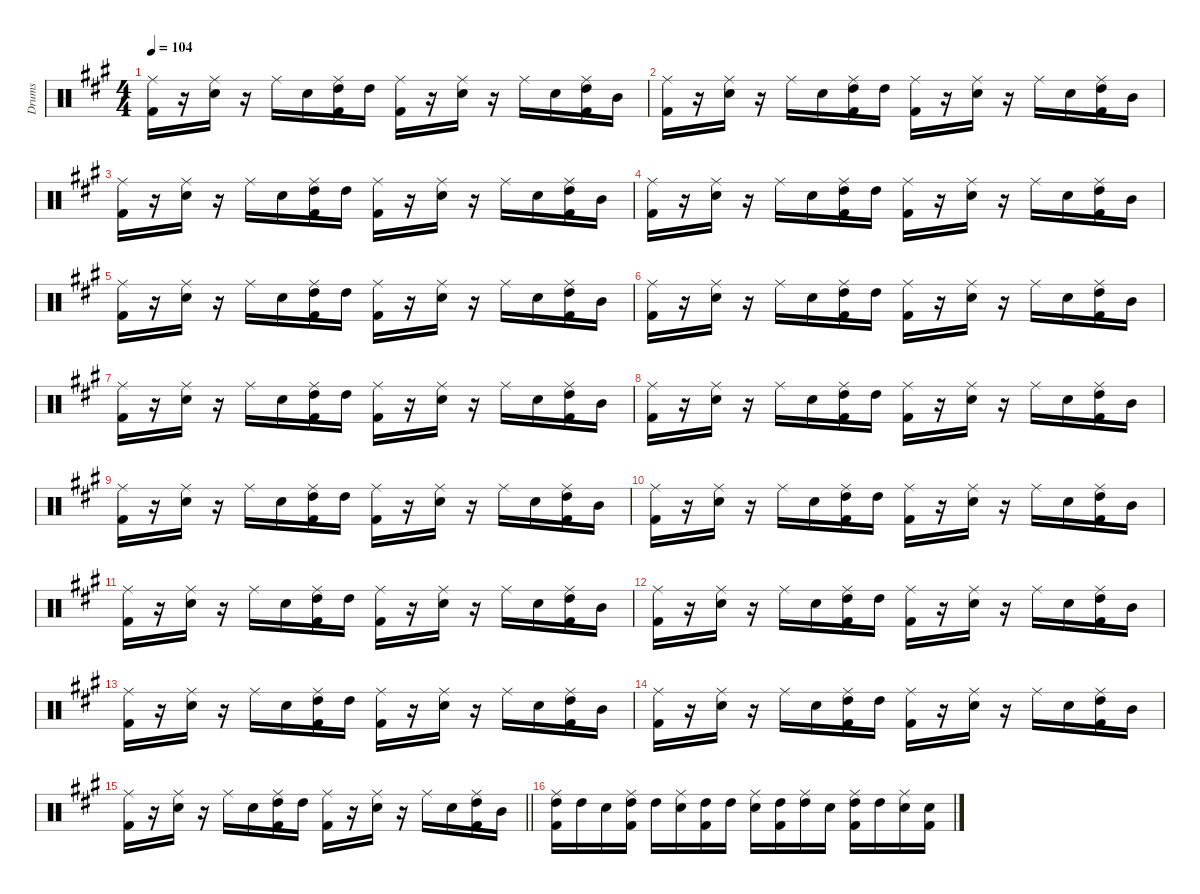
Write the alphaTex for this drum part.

\hideDynamics
\bracketExtendMode nobrackets
\otherSystemsTrackNameOrientation horizontal
\track ("Drumkit" "Drums") {instrument percussion}
\staff {score}
\articulation defaults
\ts (4 4)
\tempo 104
\clef neutral
\ks a
("Ride (middle)"{acc forcenatural} "Kick (hit) 2"{acc forcenatural}).16{dy f beam Down} r.16{beam Down} ("Ride (middle)"{acc forcenatural} "Snare (hit) 2"{acc forcenatural}).16{beam Down} r.16{beam Down} "Ride (middle)"{acc forcenatural}.16{beam Down} "Snare (hit) 2"{acc forcenatural}.16{beam Down} ("Ride (middle)"{acc forcenatural} "High Tom (hit)"{acc forcenatural} "Kick (hit) 2"{acc forcenatural}).16{beam Down} "High Tom (hit)"{acc forcenatural}.16{beam Down} ("Ride (middle)"{acc forcenatural} "Kick (hit) 2"{acc forcenatural}).16{beam Down} r.16{beam Down} ("Ride (middle)"{acc forcenatural} "Snare (hit) 2"{acc forcenatural}).16{beam Down} r.16{beam Down} "Ride (middle)"{acc forcenatural}.16{beam Down} "Snare (hit) 2"{acc forcenatural}.16{beam Down} ("Ride (middle)"{acc forcenatural} "High Tom (hit)"{acc forcenatural} "Kick (hit) 2"{acc forcenatural}).16{beam Down} "Mid Tom (hit)"{acc forcenatural}.16{beam Down} |
("Ride (middle)"{acc forcenatural} "Kick (hit) 2"{acc forcenatural}).16{beam Down} r.16{beam Down} ("Ride (middle)"{acc forcenatural} "Snare (hit) 2"{acc forcenatural}).16{beam Down} r.16{beam Down} "Ride (middle)"{acc forcenatural}.16{beam Down} "Snare (hit) 2"{acc forcenatural}.16{beam Down} ("Ride (middle)"{acc forcenatural} "High Tom (hit)"{acc forcenatural} "Kick (hit) 2"{acc forcenatural}).16{beam Down} "High Tom (hit)"{acc forcenatural}.16{beam Down} ("Ride (middle)"{acc forcenatural} "Kick (hit) 2"{acc forcenatural}).16{beam Down} r.16{beam Down} ("Ride (middle)"{acc forcenatural} "Snare (hit) 2"{acc forcenatural}).16{beam Down} r.16{beam Down} "Ride (middle)"{acc forcenatural}.16{beam Down} "Snare (hit) 2"{acc forcenatural}.16{beam Down} ("Ride (middle)"{acc forcenatural} "High Tom (hit)"{acc forcenatural} "Kick (hit) 2"{acc forcenatural}).16{beam Down} "Mid Tom (hit)"{acc forcenatural}.16{beam Down} |
("Ride (middle)"{acc forcenatural} "Kick (hit) 2"{acc forcenatural}).16{beam Down} r.16{beam Down} ("Ride (middle)"{acc forcenatural} "Snare (hit) 2"{acc forcenatural}).16{beam Down} r.16{beam Down} "Ride (middle)"{acc forcenatural}.16{beam Down} "Snare (hit) 2"{acc forcenatural}.16{beam Down} ("Ride (middle)"{acc forcenatural} "High Tom (hit)"{acc forcenatural} "Kick (hit) 2"{acc forcenatural}).16{beam Down} "High Tom (hit)"{acc forcenatural}.16{beam Down} ("Ride (middle)"{acc forcenatural} "Kick (hit) 2"{acc forcenatural}).16{beam Down} r.16{beam Down} ("Ride (middle)"{acc forcenatural} "Snare (hit) 2"{acc forcenatural}).16{beam Down} r.16{beam Down} "Ride (middle)"{acc forcenatural}.16{beam Down} "Snare (hit) 2"{acc forcenatural}.16{beam Down} ("Ride (middle)"{acc forcenatural} "High Tom (hit)"{acc forcenatural} "Kick (hit) 2"{acc forcenatural}).16{beam Down} "Mid Tom (hit)"{acc forcenatural}.16{beam Down} |
("Ride (middle)"{acc forcenatural} "Kick (hit) 2"{acc forcenatural}).16{beam Down} r.16{beam Down} ("Ride (middle)"{acc forcenatural} "Snare (hit) 2"{acc forcenatural}).16{beam Down} r.16{beam Down} "Ride (middle)"{acc forcenatural}.16{beam Down} "Snare (hit) 2"{acc forcenatural}.16{beam Down} ("Ride (middle)"{acc forcenatural} "High Tom (hit)"{acc forcenatural} "Kick (hit) 2"{acc forcenatural}).16{beam Down} "High Tom (hit)"{acc forcenatural}.16{beam Down} ("Ride (middle)"{acc forcenatural} "Kick (hit) 2"{acc forcenatural}).16{beam Down} r.16{beam Down} ("Ride (middle)"{acc forcenatural} "Snare (hit) 2"{acc forcenatural}).16{beam Down} r.16{beam Down} "Ride (middle)"{acc forcenatural}.16{beam Down} "Snare (hit) 2"{acc forcenatural}.16{beam Down} ("Ride (middle)"{acc forcenatural} "High Tom (hit)"{acc forcenatural} "Kick (hit) 2"{acc forcenatural}).16{beam Down} "Mid Tom (hit)"{acc forcenatural}.16{beam Down} |
("Ride (middle)"{acc forcenatural} "Kick (hit) 2"{acc forcenatural}).16{beam Down} r.16{beam Down} ("Ride (middle)"{acc forcenatural} "Snare (hit) 2"{acc forcenatural}).16{beam Down} r.16{beam Down} "Ride (middle)"{acc forcenatural}.16{beam Down} "Snare (hit) 2"{acc forcenatural}.16{beam Down} ("Ride (middle)"{acc forcenatural} "High Tom (hit)"{acc forcenatural} "Kick (hit) 2"{acc forcenatural}).16{beam Down} "High Tom (hit)"{acc forcenatural}.16{beam Down} ("Ride (middle)"{acc forcenatural} "Kick (hit) 2"{acc forcenatural}).16{beam Down} r.16{beam Down} ("Ride (middle)"{acc forcenatural} "Snare (hit) 2"{acc forcenatural}).16{beam Down} r.16{beam Down} "Ride (middle)"{acc forcenatural}.16{beam Down} "Snare (hit) 2"{acc forcenatural}.16{beam Down} ("Ride (middle)"{acc forcenatural} "High Tom (hit)"{acc forcenatural} "Kick (hit) 2"{acc forcenatural}).16{beam Down} "Mid Tom (hit)"{acc forcenatural}.16{beam Down} |
("Ride (middle)"{acc forcenatural} "Kick (hit) 2"{acc forcenatural}).16{beam Down} r.16{beam Down} ("Ride (middle)"{acc forcenatural} "Snare (hit) 2"{acc forcenatural}).16{beam Down} r.16{beam Down} "Ride (middle)"{acc forcenatural}.16{beam Down} "Snare (hit) 2"{acc forcenatural}.16{beam Down} ("Ride (middle)"{acc forcenatural} "High Tom (hit)"{acc forcenatural} "Kick (hit) 2"{acc forcenatural}).16{beam Down} "High Tom (hit)"{acc forcenatural}.16{beam Down} ("Ride (middle)"{acc forcenatural} "Kick (hit) 2"{acc forcenatural}).16{beam Down} r.16{beam Down} ("Ride (middle)"{acc forcenatural} "Snare (hit) 2"{acc forcenatural}).16{beam Down} r.16{beam Down} "Ride (middle)"{acc forcenatural}.16{beam Down} "Snare (hit) 2"{acc forcenatural}.16{beam Down} ("Ride (middle)"{acc forcenatural} "High Tom (hit)"{acc forcenatural} "Kick (hit) 2"{acc forcenatural}).16{beam Down} "Mid Tom (hit)"{acc forcenatural}.16{beam Down} |
("Ride (middle)"{acc forcenatural} "Kick (hit) 2"{acc forcenatural}).16{beam Down} r.16{beam Down} ("Ride (middle)"{acc forcenatural} "Snare (hit) 2"{acc forcenatural}).16{beam Down} r.16{beam Down} "Ride (middle)"{acc forcenatural}.16{beam Down} "Snare (hit) 2"{acc forcenatural}.16{beam Down} ("Ride (middle)"{acc forcenatural} "High Tom (hit)"{acc forcenatural} "Kick (hit) 2"{acc forcenatural}).16{beam Down} "High Tom (hit)"{acc forcenatural}.16{beam Down} ("Ride (middle)"{acc forcenatural} "Kick (hit) 2"{acc forcenatural}).16{beam Down} r.16{beam Down} ("Ride (middle)"{acc forcenatural} "Snare (hit) 2"{acc forcenatural}).16{beam Down} r.16{beam Down} "Ride (middle)"{acc forcenatural}.16{beam Down} "Snare (hit) 2"{acc forcenatural}.16{beam Down} ("Ride (middle)"{acc forcenatural} "High Tom (hit)"{acc forcenatural} "Kick (hit) 2"{acc forcenatural}).16{beam Down} "Mid Tom (hit)"{acc forcenatural}.16{beam Down} |
("Ride (middle)"{acc forcenatural} "Kick (hit) 2"{acc forcenatural}).16{beam Down} r.16{beam Down} ("Ride (middle)"{acc forcenatural} "Snare (hit) 2"{acc forcenatural}).16{beam Down} r.16{beam Down} "Ride (middle)"{acc forcenatural}.16{beam Down} "Snare (hit) 2"{acc forcenatural}.16{beam Down} ("Ride (middle)"{acc forcenatural} "High Tom (hit)"{acc forcenatural} "Kick (hit) 2"{acc forcenatural}).16{beam Down} "High Tom (hit)"{acc forcenatural}.16{beam Down} ("Ride (middle)"{acc forcenatural} "Kick (hit) 2"{acc forcenatural}).16{beam Down} r.16{beam Down} ("Ride (middle)"{acc forcenatural} "Snare (hit) 2"{acc forcenatural}).16{beam Down} r.16{beam Down} "Ride (middle)"{acc forcenatural}.16{beam Down} "Snare (hit) 2"{acc forcenatural}.16{beam Down} ("Ride (middle)"{acc forcenatural} "High Tom (hit)"{acc forcenatural} "Kick (hit) 2"{acc forcenatural}).16{beam Down} "Mid Tom (hit)"{acc forcenatural}.16{beam Down} |
("Ride (middle)"{acc forcenatural} "Kick (hit) 2"{acc forcenatural}).16{beam Down} r.16{beam Down} ("Ride (middle)"{acc forcenatural} "Snare (hit) 2"{acc forcenatural}).16{beam Down} r.16{beam Down} "Ride (middle)"{acc forcenatural}.16{beam Down} "Snare (hit) 2"{acc forcenatural}.16{beam Down} ("Ride (middle)"{acc forcenatural} "High Tom (hit)"{acc forcenatural} "Kick (hit) 2"{acc forcenatural}).16{beam Down} "High Tom (hit)"{acc forcenatural}.16{beam Down} ("Ride (middle)"{acc forcenatural} "Kick (hit) 2"{acc forcenatural}).16{beam Down} r.16{beam Down} ("Ride (middle)"{acc forcenatural} "Snare (hit) 2"{acc forcenatural}).16{beam Down} r.16{beam Down} "Ride (middle)"{acc forcenatural}.16{beam Down} "Snare (hit) 2"{acc forcenatural}.16{beam Down} ("Ride (middle)"{acc forcenatural} "High Tom (hit)"{acc forcenatural} "Kick (hit) 2"{acc forcenatural}).16{beam Down} "Mid Tom (hit)"{acc forcenatural}.16{beam Down} |
("Ride (middle)"{acc forcenatural} "Kick (hit) 2"{acc forcenatural}).16{beam Down} r.16{beam Down} ("Ride (middle)"{acc forcenatural} "Snare (hit) 2"{acc forcenatural}).16{beam Down} r.16{beam Down} "Ride (middle)"{acc forcenatural}.16{beam Down} "Snare (hit) 2"{acc forcenatural}.16{beam Down} ("Ride (middle)"{acc forcenatural} "High Tom (hit)"{acc forcenatural} "Kick (hit) 2"{acc forcenatural}).16{beam Down} "High Tom (hit)"{acc forcenatural}.16{beam Down} ("Ride (middle)"{acc forcenatural} "Kick (hit) 2"{acc forcenatural}).16{beam Down} r.16{beam Down} ("Ride (middle)"{acc forcenatural} "Snare (hit) 2"{acc forcenatural}).16{beam Down} r.16{beam Down} "Ride (middle)"{acc forcenatural}.16{beam Down} "Snare (hit) 2"{acc forcenatural}.16{beam Down} ("Ride (middle)"{acc forcenatural} "High Tom (hit)"{acc forcenatural} "Kick (hit) 2"{acc forcenatural}).16{beam Down} "Mid Tom (hit)"{acc forcenatural}.16{beam Down} |
("Ride (middle)"{acc forcenatural} "Kick (hit) 2"{acc forcenatural}).16{beam Down} r.16{beam Down} ("Ride (middle)"{acc forcenatural} "Snare (hit) 2"{acc forcenatural}).16{beam Down} r.16{beam Down} "Ride (middle)"{acc forcenatural}.16{beam Down} "Snare (hit) 2"{acc forcenatural}.16{beam Down} ("Ride (middle)"{acc forcenatural} "High Tom (hit)"{acc forcenatural} "Kick (hit) 2"{acc forcenatural}).16{beam Down} "High Tom (hit)"{acc forcenatural}.16{beam Down} ("Ride (middle)"{acc forcenatural} "Kick (hit) 2"{acc forcenatural}).16{beam Down} r.16{beam Down} ("Ride (middle)"{acc forcenatural} "Snare (hit) 2"{acc forcenatural}).16{beam Down} r.16{beam Down} "Ride (middle)"{acc forcenatural}.16{beam Down} "Snare (hit) 2"{acc forcenatural}.16{beam Down} ("Ride (middle)"{acc forcenatural} "High Tom (hit)"{acc forcenatural} "Kick (hit) 2"{acc forcenatural}).16{beam Down} "Mid Tom (hit)"{acc forcenatural}.16{beam Down} |
("Ride (middle)"{acc forcenatural} "Kick (hit) 2"{acc forcenatural}).16{beam Down} r.16{beam Down} ("Ride (middle)"{acc forcenatural} "Snare (hit) 2"{acc forcenatural}).16{beam Down} r.16{beam Down} "Ride (middle)"{acc forcenatural}.16{beam Down} "Snare (hit) 2"{acc forcenatural}.16{beam Down} ("Ride (middle)"{acc forcenatural} "High Tom (hit)"{acc forcenatural} "Kick (hit) 2"{acc forcenatural}).16{beam Down} "High Tom (hit)"{acc forcenatural}.16{beam Down} ("Ride (middle)"{acc forcenatural} "Kick (hit) 2"{acc forcenatural}).16{beam Down} r.16{beam Down} ("Ride (middle)"{acc forcenatural} "Snare (hit) 2"{acc forcenatural}).16{beam Down} r.16{beam Down} "Ride (middle)"{acc forcenatural}.16{beam Down} "Snare (hit) 2"{acc forcenatural}.16{beam Down} ("Ride (middle)"{acc forcenatural} "High Tom (hit)"{acc forcenatural} "Kick (hit) 2"{acc forcenatural}).16{beam Down} "Mid Tom (hit)"{acc forcenatural}.16{beam Down} |
("Ride (middle)"{acc forcenatural} "Kick (hit) 2"{acc forcenatural}).16{beam Down} r.16{beam Down} ("Ride (middle)"{acc forcenatural} "Snare (hit) 2"{acc forcenatural}).16{beam Down} r.16{beam Down} "Ride (middle)"{acc forcenatural}.16{beam Down} "Snare (hit) 2"{acc forcenatural}.16{beam Down} ("Ride (middle)"{acc forcenatural} "High Tom (hit)"{acc forcenatural} "Kick (hit) 2"{acc forcenatural}).16{beam Down} "High Tom (hit)"{acc forcenatural}.16{beam Down} ("Ride (middle)"{acc forcenatural} "Kick (hit) 2"{acc forcenatural}).16{beam Down} r.16{beam Down} ("Ride (middle)"{acc forcenatural} "Snare (hit) 2"{acc forcenatural}).16{beam Down} r.16{beam Down} "Ride (middle)"{acc forcenatural}.16{beam Down} "Snare (hit) 2"{acc forcenatural}.16{beam Down} ("Ride (middle)"{acc forcenatural} "High Tom (hit)"{acc forcenatural} "Kick (hit) 2"{acc forcenatural}).16{beam Down} "Mid Tom (hit)"{acc forcenatural}.16{beam Down} |
("Ride (middle)"{acc forcenatural} "Kick (hit) 2"{acc forcenatural}).16{beam Down} r.16{beam Down} ("Ride (middle)"{acc forcenatural} "Snare (hit) 2"{acc forcenatural}).16{beam Down} r.16{beam Down} "Ride (middle)"{acc forcenatural}.16{beam Down} "Snare (hit) 2"{acc forcenatural}.16{beam Down} ("Ride (middle)"{acc forcenatural} "High Tom (hit)"{acc forcenatural} "Kick (hit) 2"{acc forcenatural}).16{beam Down} "High Tom (hit)"{acc forcenatural}.16{beam Down} ("Ride (middle)"{acc forcenatural} "Kick (hit) 2"{acc forcenatural}).16{beam Down} r.16{beam Down} ("Ride (middle)"{acc forcenatural} "Snare (hit) 2"{acc forcenatural}).16{beam Down} r.16{beam Down} "Ride (middle)"{acc forcenatural}.16{beam Down} "Snare (hit) 2"{acc forcenatural}.16{beam Down} ("Ride (middle)"{acc forcenatural} "High Tom (hit)"{acc forcenatural} "Kick (hit) 2"{acc forcenatural}).16{beam Down} "Mid Tom (hit)"{acc forcenatural}.16{beam Down} |
\barLineRight lightlight
("Ride (middle)"{acc forcenatural} "Kick (hit) 2"{acc forcenatural}).16{beam Down} r.16{beam Down} ("Ride (middle)"{acc forcenatural} "Snare (hit) 2"{acc forcenatural}).16{beam Down} r.16{beam Down} "Ride (middle)"{acc forcenatural}.16{beam Down} "Snare (hit) 2"{acc forcenatural}.16{beam Down} ("Ride (middle)"{acc forcenatural} "High Tom (hit)"{acc forcenatural} "Kick (hit) 2"{acc forcenatural}).16{beam Down} "High Tom (hit)"{acc forcenatural}.16{beam Down} ("Ride (middle)"{acc forcenatural} "Kick (hit) 2"{acc forcenatural}).16{beam Down} r.16{beam Down} ("Ride (middle)"{acc forcenatural} "Snare (hit) 2"{acc forcenatural}).16{beam Down} r.16{beam Down} "Ride (middle)"{acc forcenatural}.16{beam Down} "Snare (hit) 2"{acc forcenatural}.16{beam Down} ("Ride (middle)"{acc forcenatural} "High Tom (hit)"{acc forcenatural} "Kick (hit) 2"{acc forcenatural}).16{beam Down} "Mid Tom (hit)"{acc forcenatural}.16{beam Down} |
("Ride (middle)"{acc forcenatural} "High Tom (hit)"{acc forcenatural} "Kick (hit) 2"{acc forcenatural}).16{beam Down} "High Tom (hit)"{acc forcenatural}.16{beam Down} "Snare (hit) 2"{acc forcenatural}.16{beam Down} ("Ride (middle)"{acc forcenatural} "High Tom (hit)"{acc forcenatural} "Kick (hit) 2"{acc forcenatural}).16{beam Down} "High Tom (hit)"{acc forcenatural}.16{beam Down} ("Ride (middle)"{acc forcenatural} "Snare (hit) 2"{acc forcenatural}).16{beam Down} ("High Tom (hit)"{acc forcenatural} "Kick (hit) 2"{acc forcenatural}).16{beam Down} "High Tom (hit)"{acc forcenatural}.16{beam Down} ("Ride (middle)"{acc forcenatural} "Snare (hit) 2"{acc forcenatural}).16{beam Down} ("High Tom (hit)"{acc forcenatural} "Kick (hit) 2"{acc forcenatural}).16{beam Down} ("Ride (middle)"{acc forcenatural} "High Tom (hit)"{acc forcenatural}).16{beam Down} "Snare (hit) 2"{acc forcenatural}.16{beam Down} ("Ride (middle)"{acc forcenatural} "High Tom (hit)"{acc forcenatural} "Kick (hit) 2"{acc forcenatural}).16{beam Down} "High Tom (hit)"{acc forcenatural}.16{beam Down} ("Ride (middle)"{acc forcenatural} "Snare (hit) 2"{acc forcenatural}).16{beam Down} ("Snare (hit) 2"{acc forcenatural} "Kick (hit) 2"{acc forcenatural}).16{beam Down}
